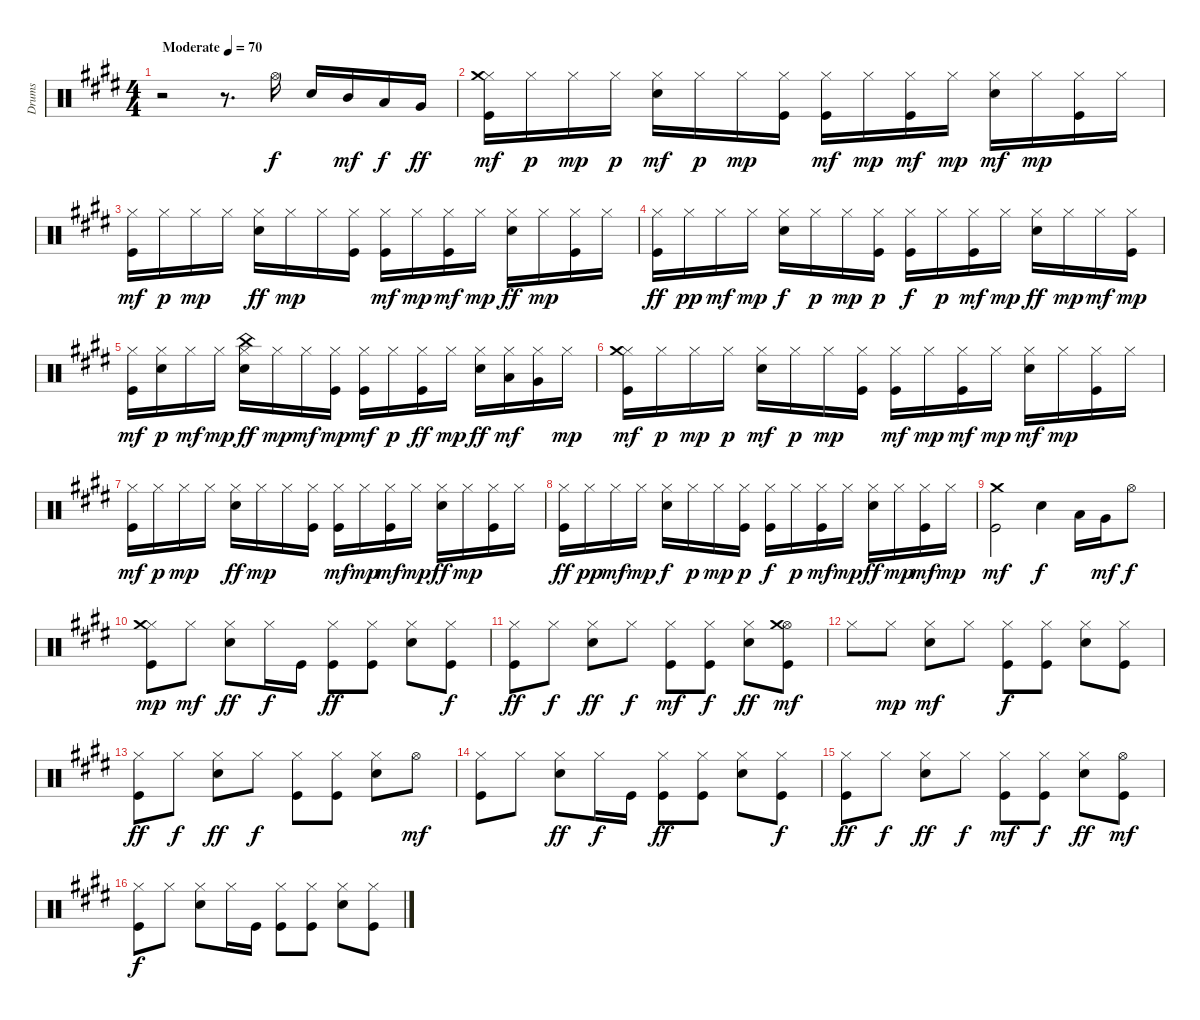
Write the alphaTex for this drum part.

\track ("Drums" "Drums") {instrument percussion}
\staff {score}
\articulation defaults
\ts (4 4)
\tempo (70 "Moderate")
\clef neutral
\ks e
r.2{dy f} r.8{d} "Hi-Hat (open)".16 "Snare (hit) 2".16 "Mid Tom (hit)".16{dy mf} "Low Tom (hit)".16{dy f} "Very Low Tom (hit)".16{dy ff} |
("Kick (hit)" "Hi-Hat (closed)" "Crash medium (hit)").16{dy mf} "Hi-Hat (closed)".16{dy p} "Hi-Hat (closed)".16{dy mp} "Hi-Hat (closed)".16{dy p} ("Snare (hit) 2" "Hi-Hat (closed)").16{dy mf} "Hi-Hat (closed)".16{dy p} "Hi-Hat (closed)".16{dy mp} ("Kick (hit)" "Hi-Hat (closed)").16 ("Kick (hit)" "Hi-Hat (closed)").16{dy mf} "Hi-Hat (closed)".16{dy mp} ("Kick (hit)" "Hi-Hat (closed)").16{dy mf} "Hi-Hat (closed)".16{dy mp} ("Snare (hit) 2" "Hi-Hat (closed)").16{dy mf} "Hi-Hat (closed)".16{dy mp} ("Kick (hit)" "Hi-Hat (closed)").16 "Hi-Hat (closed)".16 |
("Kick (hit)" "Hi-Hat (closed)").16{dy mf} "Hi-Hat (closed)".16{dy p} "Hi-Hat (closed)".16{dy mp} "Hi-Hat (closed)".16 ("Snare (hit) 2" "Hi-Hat (closed)").16{dy ff} "Hi-Hat (closed)".16{dy mp} "Hi-Hat (closed)".16 ("Kick (hit)" "Hi-Hat (closed)").16 ("Kick (hit)" "Hi-Hat (closed)").16{dy mf} "Hi-Hat (closed)".16{dy mp} ("Kick (hit)" "Hi-Hat (closed)").16{dy mf} "Hi-Hat (closed)".16{dy mp} ("Snare (hit) 2" "Hi-Hat (closed)").16{dy ff} "Hi-Hat (closed)".16{dy mp} ("Kick (hit)" "Hi-Hat (closed)").16 "Hi-Hat (closed)".16 |
("Kick (hit)" "Hi-Hat (closed)").16{dy ff} "Hi-Hat (closed)".16{dy pp} "Hi-Hat (closed)".16{dy mf} "Hi-Hat (closed)".16{dy mp} ("Snare (hit) 2" "Hi-Hat (closed)").16{dy f} "Hi-Hat (closed)".16{dy p} "Hi-Hat (closed)".16{dy mp} ("Kick (hit)" "Hi-Hat (closed)").16{dy p} ("Kick (hit)" "Hi-Hat (closed)").16{dy f} "Hi-Hat (closed)".16{dy p} ("Kick (hit)" "Hi-Hat (closed)").16{dy mf} "Hi-Hat (closed)".16{dy mp} ("Snare (hit) 2" "Hi-Hat (closed)").16{dy ff} "Hi-Hat (closed)".16{dy mp} "Hi-Hat (closed)".16{dy mf} ("Kick (hit)" "Hi-Hat (closed)").16{dy mp} |
("Kick (hit)" "Hi-Hat (closed)").16{dy mf} ("Snare (hit) 2" "Hi-Hat (closed)").16{dy p} "Hi-Hat (closed)".16{dy mf} "Hi-Hat (closed)".16{dy mp} ("Snare (hit) 2" "Hi-Hat (closed)" "China (hit)").16{dy ff} "Hi-Hat (closed)".16{dy mp} "Hi-Hat (closed)".16{dy mf} ("Kick (hit)" "Hi-Hat (closed)").16{dy mp} ("Kick (hit)" "Hi-Hat (closed)").16{dy mf} "Hi-Hat (closed)".16{dy p} ("Kick (hit)" "Hi-Hat (closed)").16{dy ff} "Hi-Hat (closed)".16{dy mp} ("Snare (hit) 2" "Hi-Hat (closed)").16{dy ff} ("Hi-Hat (closed)" "Low Tom (hit)").16{dy mf} ("Hi-Hat (closed)" "Very Low Tom (hit)").16 "Hi-Hat (closed)".16{dy mp} |
("Kick (hit)" "Hi-Hat (closed)" "Crash medium (hit)").16{dy mf} "Hi-Hat (closed)".16{dy p} "Hi-Hat (closed)".16{dy mp} "Hi-Hat (closed)".16{dy p} ("Snare (hit) 2" "Hi-Hat (closed)").16{dy mf} "Hi-Hat (closed)".16{dy p} "Hi-Hat (closed)".16{dy mp} ("Kick (hit)" "Hi-Hat (closed)").16 ("Kick (hit)" "Hi-Hat (closed)").16{dy mf} "Hi-Hat (closed)".16{dy mp} ("Kick (hit)" "Hi-Hat (closed)").16{dy mf} "Hi-Hat (closed)".16{dy mp} ("Snare (hit) 2" "Hi-Hat (closed)").16{dy mf} "Hi-Hat (closed)".16{dy mp} ("Kick (hit)" "Hi-Hat (closed)").16 "Hi-Hat (closed)".16 |
("Kick (hit)" "Hi-Hat (closed)").16{dy mf} "Hi-Hat (closed)".16{dy p} "Hi-Hat (closed)".16{dy mp} "Hi-Hat (closed)".16 ("Snare (hit) 2" "Hi-Hat (closed)").16{dy ff} "Hi-Hat (closed)".16{dy mp} "Hi-Hat (closed)".16 ("Kick (hit)" "Hi-Hat (closed)").16 ("Kick (hit)" "Hi-Hat (closed)").16{dy mf} "Hi-Hat (closed)".16{dy mp} ("Kick (hit)" "Hi-Hat (closed)").16{dy mf} "Hi-Hat (closed)".16{dy mp} ("Snare (hit) 2" "Hi-Hat (closed)").16{dy ff} "Hi-Hat (closed)".16{dy mp} ("Kick (hit)" "Hi-Hat (closed)").16 "Hi-Hat (closed)".16 |
("Kick (hit)" "Hi-Hat (closed)").16{dy ff} "Hi-Hat (closed)".16{dy pp} "Hi-Hat (closed)".16{dy mf} "Hi-Hat (closed)".16{dy mp} ("Snare (hit) 2" "Hi-Hat (closed)").16{dy f} "Hi-Hat (closed)".16{dy p} "Hi-Hat (closed)".16{dy mp} ("Kick (hit)" "Hi-Hat (closed)").16{dy p} ("Kick (hit)" "Hi-Hat (closed)").16{dy f} "Hi-Hat (closed)".16{dy p} ("Kick (hit)" "Hi-Hat (closed)").16{dy mf} "Hi-Hat (closed)".16{dy mp} ("Snare (hit) 2" "Hi-Hat (closed)").16{dy ff} "Hi-Hat (closed)".16{dy mp} ("Kick (hit)" "Hi-Hat (closed)").16{dy mf} "Hi-Hat (closed)".16{dy mp} |
("Kick (hit)" "Crash medium (hit)").2{dy mf} "Snare (hit) 2".4{dy f} "Low Tom (hit)".16 "Very Low Tom (hit)".16{dy mf} "Hi-Hat (open)".8{dy f} |
("Kick (hit)" "Hi-Hat (closed)" "Crash medium (hit)").8{dy mp} "Hi-Hat (closed)".8{dy mf} ("Snare (hit) 2" "Hi-Hat (closed)").8{dy ff} "Hi-Hat (closed)".16{dy f} "Kick (hit)".16 ("Kick (hit)" "Hi-Hat (closed)").8{dy ff} ("Kick (hit)" "Hi-Hat (closed)").8 ("Snare (hit) 2" "Hi-Hat (closed)").8 ("Kick (hit)" "Hi-Hat (closed)").8{dy f} |
("Kick (hit)" "Hi-Hat (closed)").8{dy ff} "Hi-Hat (closed)".8{dy f} ("Snare (hit) 2" "Hi-Hat (closed)").8{dy ff} "Hi-Hat (closed)".8{dy f} ("Kick (hit)" "Hi-Hat (closed)").8{dy mf} ("Kick (hit)" "Hi-Hat (closed)").8{dy f} ("Snare (hit) 2" "Hi-Hat (closed)").8{dy ff} ("Kick (hit)" "Hi-Hat (open)" "Crash medium (hit)").8{dy mf} |
"Hi-Hat (closed)".8 "Hi-Hat (closed)".8{dy mp} ("Snare (hit) 2" "Hi-Hat (closed)").8{dy mf} "Hi-Hat (closed)".8 ("Kick (hit)" "Hi-Hat (closed)").8{dy f} ("Kick (hit)" "Hi-Hat (closed)").8 ("Snare (hit) 2" "Hi-Hat (closed)").8 ("Kick (hit)" "Hi-Hat (closed)").8 |
("Kick (hit)" "Hi-Hat (closed)").8{dy ff} "Hi-Hat (closed)".8{dy f} ("Snare (hit) 2" "Hi-Hat (closed)").8{dy ff} "Hi-Hat (closed)".8{dy f} ("Kick (hit)" "Hi-Hat (closed)").8 ("Kick (hit)" "Hi-Hat (closed)").8 ("Snare (hit) 2" "Hi-Hat (closed)").8 "Hi-Hat (open)".8{dy mf} |
("Kick (hit)" "Hi-Hat (closed)").8 "Hi-Hat (closed)".8 ("Snare (hit) 2" "Hi-Hat (closed)").8{dy ff} "Hi-Hat (closed)".16{dy f} "Kick (hit)".16 ("Kick (hit)" "Hi-Hat (closed)").8{dy ff} ("Kick (hit)" "Hi-Hat (closed)").8 ("Snare (hit) 2" "Hi-Hat (closed)").8 ("Kick (hit)" "Hi-Hat (closed)").8{dy f} |
("Kick (hit)" "Hi-Hat (closed)").8{dy ff} "Hi-Hat (closed)".8{dy f} ("Snare (hit) 2" "Hi-Hat (closed)").8{dy ff} "Hi-Hat (closed)".8{dy f} ("Kick (hit)" "Hi-Hat (closed)").8{dy mf} ("Kick (hit)" "Hi-Hat (closed)").8{dy f} ("Snare (hit) 2" "Hi-Hat (closed)").8{dy ff} ("Kick (hit)" "Hi-Hat (open)").8{dy mf} |
("Kick (hit)" "Hi-Hat (closed)").8{dy f} "Hi-Hat (closed)".8 ("Snare (hit) 2" "Hi-Hat (closed)").8 "Hi-Hat (closed)".16 "Kick (hit)".16 ("Kick (hit)" "Hi-Hat (closed)").8 ("Kick (hit)" "Hi-Hat (closed)").8 ("Snare (hit) 2" "Hi-Hat (closed)").8 ("Kick (hit)" "Hi-Hat (closed)").8
